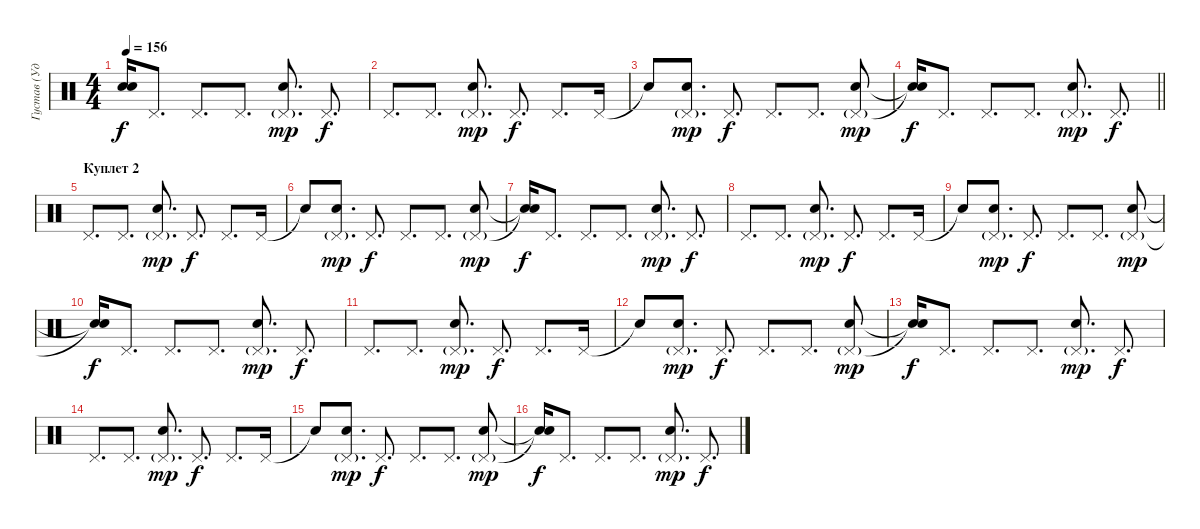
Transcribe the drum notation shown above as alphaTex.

\track ("Густав (Ударные)" "Густав (Уд") {instrument percussion}
\staff {score}
\articulation defaults
\ts (4 4)
\tempo 156
\clef neutral
\ks c
("Snare (hit)"{t} "Snare (hit)"{t}).16{dy f} "Pedal Hi-Hat (hit)".8{d} "Pedal Hi-Hat (hit)".8{d} "Pedal Hi-Hat (hit)".8{d} ("Pedal Hi-Hat (hit)"{g} "Electric Snare (hit)").8{d dy mp} "Pedal Hi-Hat (hit)".8{d dy f} |
"Pedal Hi-Hat (hit)".8{d} "Pedal Hi-Hat (hit)".8{d} ("Pedal Hi-Hat (hit)"{g} "Electric Snare (hit)").8{d dy mp} "Pedal Hi-Hat (hit)".8{d dy f} "Pedal Hi-Hat (hit)".8{d} "Pedal Hi-Hat (hit)".16 |
"Snare (hit)"{t}.8 ("Pedal Hi-Hat (hit)"{g} "Electric Snare (hit)").8{d dy mp} "Pedal Hi-Hat (hit)".8{d dy f} "Pedal Hi-Hat (hit)".8{d} "Pedal Hi-Hat (hit)".8{d} ("Pedal Hi-Hat (hit)"{g} "Electric Snare (hit)").8{dy mp} |
\barLineRight lightlight
("Snare (hit)"{t} "Snare (hit)"{t}).16{dy f} "Pedal Hi-Hat (hit)".8{d} "Pedal Hi-Hat (hit)".8{d} "Pedal Hi-Hat (hit)".8{d} ("Pedal Hi-Hat (hit)"{g} "Electric Snare (hit)").8{d dy mp} "Pedal Hi-Hat (hit)".8{d dy f} |
\section ("" "Куплет 2")
"Pedal Hi-Hat (hit)".8{d} "Pedal Hi-Hat (hit)".8{d} ("Pedal Hi-Hat (hit)"{g} "Electric Snare (hit)").8{d dy mp} "Pedal Hi-Hat (hit)".8{d dy f} "Pedal Hi-Hat (hit)".8{d} "Pedal Hi-Hat (hit)".16 |
"Snare (hit)"{t}.8 ("Pedal Hi-Hat (hit)"{g} "Electric Snare (hit)").8{d dy mp} "Pedal Hi-Hat (hit)".8{d dy f} "Pedal Hi-Hat (hit)".8{d} "Pedal Hi-Hat (hit)".8{d} ("Pedal Hi-Hat (hit)"{g} "Electric Snare (hit)").8{dy mp} |
("Snare (hit)"{t} "Snare (hit)"{t}).16{dy f} "Pedal Hi-Hat (hit)".8{d} "Pedal Hi-Hat (hit)".8{d} "Pedal Hi-Hat (hit)".8{d} ("Pedal Hi-Hat (hit)"{g} "Electric Snare (hit)").8{d dy mp} "Pedal Hi-Hat (hit)".8{d dy f} |
"Pedal Hi-Hat (hit)".8{d} "Pedal Hi-Hat (hit)".8{d} ("Pedal Hi-Hat (hit)"{g} "Electric Snare (hit)").8{d dy mp} "Pedal Hi-Hat (hit)".8{d dy f} "Pedal Hi-Hat (hit)".8{d} "Pedal Hi-Hat (hit)".16 |
"Snare (hit)"{t}.8 ("Pedal Hi-Hat (hit)"{g} "Electric Snare (hit)").8{d dy mp} "Pedal Hi-Hat (hit)".8{d dy f} "Pedal Hi-Hat (hit)".8{d} "Pedal Hi-Hat (hit)".8{d} ("Pedal Hi-Hat (hit)"{g} "Electric Snare (hit)").8{dy mp} |
("Snare (hit)"{t} "Snare (hit)"{t}).16{dy f} "Pedal Hi-Hat (hit)".8{d} "Pedal Hi-Hat (hit)".8{d} "Pedal Hi-Hat (hit)".8{d} ("Pedal Hi-Hat (hit)"{g} "Electric Snare (hit)").8{d dy mp} "Pedal Hi-Hat (hit)".8{d dy f} |
"Pedal Hi-Hat (hit)".8{d} "Pedal Hi-Hat (hit)".8{d} ("Pedal Hi-Hat (hit)"{g} "Electric Snare (hit)").8{d dy mp} "Pedal Hi-Hat (hit)".8{d dy f} "Pedal Hi-Hat (hit)".8{d} "Pedal Hi-Hat (hit)".16 |
"Snare (hit)"{t}.8 ("Pedal Hi-Hat (hit)"{g} "Electric Snare (hit)").8{d dy mp} "Pedal Hi-Hat (hit)".8{d dy f} "Pedal Hi-Hat (hit)".8{d} "Pedal Hi-Hat (hit)".8{d} ("Pedal Hi-Hat (hit)"{g} "Electric Snare (hit)").8{dy mp} |
("Snare (hit)"{t} "Snare (hit)"{t}).16{dy f} "Pedal Hi-Hat (hit)".8{d} "Pedal Hi-Hat (hit)".8{d} "Pedal Hi-Hat (hit)".8{d} ("Pedal Hi-Hat (hit)"{g} "Electric Snare (hit)").8{d dy mp} "Pedal Hi-Hat (hit)".8{d dy f} |
"Pedal Hi-Hat (hit)".8{d} "Pedal Hi-Hat (hit)".8{d} ("Pedal Hi-Hat (hit)"{g} "Electric Snare (hit)").8{d dy mp} "Pedal Hi-Hat (hit)".8{d dy f} "Pedal Hi-Hat (hit)".8{d} "Pedal Hi-Hat (hit)".16 |
"Snare (hit)"{t}.8 ("Pedal Hi-Hat (hit)"{g} "Electric Snare (hit)").8{d dy mp} "Pedal Hi-Hat (hit)".8{d dy f} "Pedal Hi-Hat (hit)".8{d} "Pedal Hi-Hat (hit)".8{d} ("Pedal Hi-Hat (hit)"{g} "Electric Snare (hit)").8{dy mp} |
("Snare (hit)"{t} "Snare (hit)"{t}).16{dy f} "Pedal Hi-Hat (hit)".8{d} "Pedal Hi-Hat (hit)".8{d} "Pedal Hi-Hat (hit)".8{d} ("Pedal Hi-Hat (hit)"{g} "Electric Snare (hit)").8{d dy mp} "Pedal Hi-Hat (hit)".8{d dy f}
